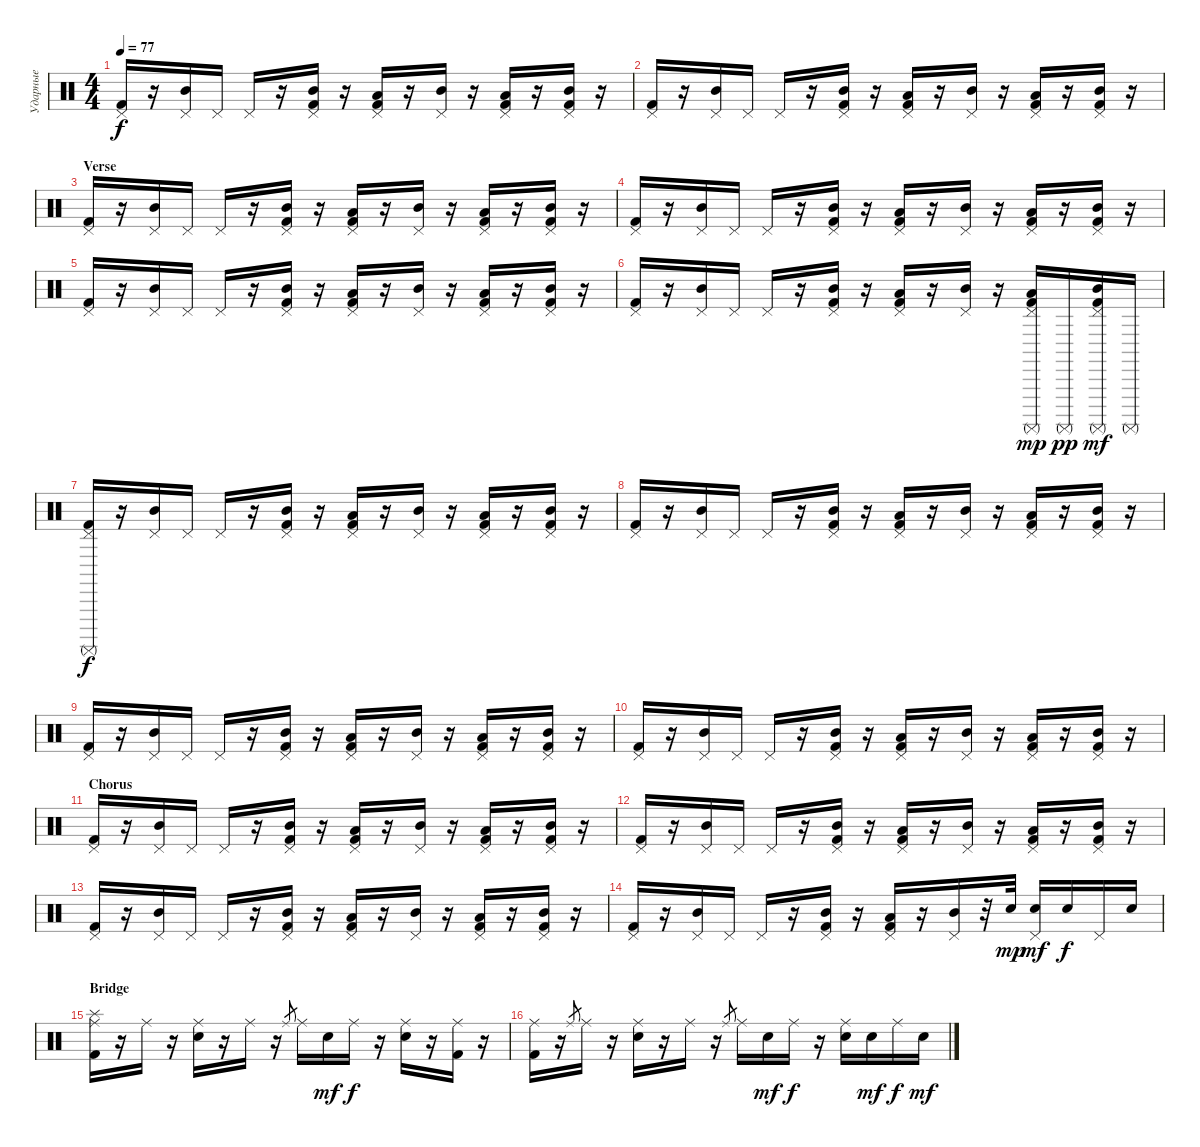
\track ("Ударные" "Ударные") {instrument percussion}
\staff {score}
\articulation defaults
\ts (4 4)
\tempo 77
\clef neutral
\ks c
("Pedal Hi-Hat (hit)" "Kick (hit) 2").16{dy f} r.16 ("Pedal Hi-Hat (hit)" "Mid Tom (hit)").16 "Pedal Hi-Hat (hit)".16 "Pedal Hi-Hat (hit)".16 r.16 ("Pedal Hi-Hat (hit)" "Mid Tom (hit)" "Kick (hit) 2").16 r.16 ("Pedal Hi-Hat (hit)" "Low Tom (hit)" "Kick (hit) 2").16 r.16 ("Pedal Hi-Hat (hit)" "Mid Tom (hit)").16 r.16 ("Pedal Hi-Hat (hit)" "Low Tom (hit)" "Kick (hit) 2").16 r.16 ("Pedal Hi-Hat (hit)" "Mid Tom (hit)" "Kick (hit) 2").16 r.16 |
("Pedal Hi-Hat (hit)" "Kick (hit) 2").16 r.16 ("Pedal Hi-Hat (hit)" "Mid Tom (hit)").16 "Pedal Hi-Hat (hit)".16 "Pedal Hi-Hat (hit)".16 r.16 ("Pedal Hi-Hat (hit)" "Mid Tom (hit)" "Kick (hit) 2").16 r.16 ("Pedal Hi-Hat (hit)" "Low Tom (hit)" "Kick (hit) 2").16 r.16 ("Pedal Hi-Hat (hit)" "Mid Tom (hit)").16 r.16 ("Pedal Hi-Hat (hit)" "Low Tom (hit)" "Kick (hit) 2").16 r.16 ("Pedal Hi-Hat (hit)" "Mid Tom (hit)" "Kick (hit) 2").16 r.16 |
\section ("" "Verse")
("Pedal Hi-Hat (hit)" "Kick (hit) 2").16 r.16 ("Pedal Hi-Hat (hit)" "Mid Tom (hit)").16 "Pedal Hi-Hat (hit)".16 "Pedal Hi-Hat (hit)".16 r.16 ("Pedal Hi-Hat (hit)" "Mid Tom (hit)" "Kick (hit) 2").16 r.16 ("Pedal Hi-Hat (hit)" "Low Tom (hit)" "Kick (hit) 2").16 r.16 ("Pedal Hi-Hat (hit)" "Mid Tom (hit)").16 r.16 ("Pedal Hi-Hat (hit)" "Low Tom (hit)" "Kick (hit) 2").16 r.16 ("Pedal Hi-Hat (hit)" "Mid Tom (hit)" "Kick (hit) 2").16 r.16 |
("Pedal Hi-Hat (hit)" "Kick (hit) 2").16 r.16 ("Pedal Hi-Hat (hit)" "Mid Tom (hit)").16 "Pedal Hi-Hat (hit)".16 "Pedal Hi-Hat (hit)".16 r.16 ("Pedal Hi-Hat (hit)" "Mid Tom (hit)" "Kick (hit) 2").16 r.16 ("Pedal Hi-Hat (hit)" "Low Tom (hit)" "Kick (hit) 2").16 r.16 ("Pedal Hi-Hat (hit)" "Mid Tom (hit)").16 r.16 ("Pedal Hi-Hat (hit)" "Low Tom (hit)" "Kick (hit) 2").16 r.16 ("Pedal Hi-Hat (hit)" "Mid Tom (hit)" "Kick (hit) 2").16 r.16 |
("Pedal Hi-Hat (hit)" "Kick (hit) 2").16 r.16 ("Pedal Hi-Hat (hit)" "Mid Tom (hit)").16 "Pedal Hi-Hat (hit)".16 "Pedal Hi-Hat (hit)".16 r.16 ("Pedal Hi-Hat (hit)" "Mid Tom (hit)" "Kick (hit) 2").16 r.16 ("Pedal Hi-Hat (hit)" "Low Tom (hit)" "Kick (hit) 2").16 r.16 ("Pedal Hi-Hat (hit)" "Mid Tom (hit)").16 r.16 ("Pedal Hi-Hat (hit)" "Low Tom (hit)" "Kick (hit) 2").16 r.16 ("Pedal Hi-Hat (hit)" "Mid Tom (hit)" "Kick (hit) 2").16 r.16 |
("Pedal Hi-Hat (hit)" "Kick (hit) 2").16 r.16 ("Pedal Hi-Hat (hit)" "Mid Tom (hit)").16 "Pedal Hi-Hat (hit)".16 "Pedal Hi-Hat (hit)".16 r.16 ("Pedal Hi-Hat (hit)" "Mid Tom (hit)" "Kick (hit) 2").16 r.16 ("Pedal Hi-Hat (hit)" "Low Tom (hit)" "Kick (hit) 2").16 r.16 ("Pedal Hi-Hat (hit)" "Mid Tom (hit)").16 r.16 ("Pedal Hi-Hat (hit)" "Surdo (mute)" "Low Tom (hit)" "Kick (hit) 2").16{dy mp} "Surdo (mute)".16{dy pp} ("Pedal Hi-Hat (hit)" "Surdo (mute)" "Mid Tom (hit)" "Kick (hit) 2").16{dy mf} "Surdo (mute)".16 |
("Pedal Hi-Hat (hit)" "Surdo (mute)" "Kick (hit) 2").16{dy f} r.16 ("Pedal Hi-Hat (hit)" "Mid Tom (hit)").16 "Pedal Hi-Hat (hit)".16 "Pedal Hi-Hat (hit)".16 r.16 ("Pedal Hi-Hat (hit)" "Mid Tom (hit)" "Kick (hit) 2").16 r.16 ("Pedal Hi-Hat (hit)" "Low Tom (hit)" "Kick (hit) 2").16 r.16 ("Pedal Hi-Hat (hit)" "Mid Tom (hit)").16 r.16 ("Pedal Hi-Hat (hit)" "Low Tom (hit)" "Kick (hit) 2").16 r.16 ("Pedal Hi-Hat (hit)" "Mid Tom (hit)" "Kick (hit) 2").16 r.16 |
("Pedal Hi-Hat (hit)" "Kick (hit) 2").16 r.16 ("Pedal Hi-Hat (hit)" "Mid Tom (hit)").16 "Pedal Hi-Hat (hit)".16 "Pedal Hi-Hat (hit)".16 r.16 ("Pedal Hi-Hat (hit)" "Mid Tom (hit)" "Kick (hit) 2").16 r.16 ("Pedal Hi-Hat (hit)" "Low Tom (hit)" "Kick (hit) 2").16 r.16 ("Pedal Hi-Hat (hit)" "Mid Tom (hit)").16 r.16 ("Pedal Hi-Hat (hit)" "Low Tom (hit)" "Kick (hit) 2").16 r.16 ("Pedal Hi-Hat (hit)" "Mid Tom (hit)" "Kick (hit) 2").16 r.16 |
("Pedal Hi-Hat (hit)" "Kick (hit) 2").16 r.16 ("Pedal Hi-Hat (hit)" "Mid Tom (hit)").16 "Pedal Hi-Hat (hit)".16 "Pedal Hi-Hat (hit)".16 r.16 ("Pedal Hi-Hat (hit)" "Mid Tom (hit)" "Kick (hit) 2").16 r.16 ("Pedal Hi-Hat (hit)" "Low Tom (hit)" "Kick (hit) 2").16 r.16 ("Pedal Hi-Hat (hit)" "Mid Tom (hit)").16 r.16 ("Pedal Hi-Hat (hit)" "Low Tom (hit)" "Kick (hit) 2").16 r.16 ("Pedal Hi-Hat (hit)" "Mid Tom (hit)" "Kick (hit) 2").16 r.16 |
("Pedal Hi-Hat (hit)" "Kick (hit) 2").16 r.16 ("Pedal Hi-Hat (hit)" "Mid Tom (hit)").16 "Pedal Hi-Hat (hit)".16 "Pedal Hi-Hat (hit)".16 r.16 ("Pedal Hi-Hat (hit)" "Mid Tom (hit)" "Kick (hit) 2").16 r.16 ("Pedal Hi-Hat (hit)" "Low Tom (hit)" "Kick (hit) 2").16 r.16 ("Pedal Hi-Hat (hit)" "Mid Tom (hit)").16 r.16 ("Pedal Hi-Hat (hit)" "Low Tom (hit)" "Kick (hit) 2").16 r.16 ("Pedal Hi-Hat (hit)" "Mid Tom (hit)" "Kick (hit) 2").16 r.16 |
\section ("" "Chorus")
("Pedal Hi-Hat (hit)" "Kick (hit) 2").16 r.16 ("Pedal Hi-Hat (hit)" "Mid Tom (hit)").16 "Pedal Hi-Hat (hit)".16 "Pedal Hi-Hat (hit)".16 r.16 ("Pedal Hi-Hat (hit)" "Mid Tom (hit)" "Kick (hit) 2").16 r.16 ("Pedal Hi-Hat (hit)" "Low Tom (hit)" "Kick (hit) 2").16 r.16 ("Pedal Hi-Hat (hit)" "Mid Tom (hit)").16 r.16 ("Pedal Hi-Hat (hit)" "Low Tom (hit)" "Kick (hit) 2").16 r.16 ("Pedal Hi-Hat (hit)" "Mid Tom (hit)" "Kick (hit) 2").16 r.16 |
("Pedal Hi-Hat (hit)" "Kick (hit) 2").16 r.16 ("Pedal Hi-Hat (hit)" "Mid Tom (hit)").16 "Pedal Hi-Hat (hit)".16 "Pedal Hi-Hat (hit)".16 r.16 ("Pedal Hi-Hat (hit)" "Mid Tom (hit)" "Kick (hit) 2").16 r.16 ("Pedal Hi-Hat (hit)" "Low Tom (hit)" "Kick (hit) 2").16 r.16 ("Pedal Hi-Hat (hit)" "Mid Tom (hit)").16 r.16 ("Pedal Hi-Hat (hit)" "Low Tom (hit)" "Kick (hit) 2").16 r.16 ("Pedal Hi-Hat (hit)" "Mid Tom (hit)" "Kick (hit) 2").16 r.16 |
("Pedal Hi-Hat (hit)" "Kick (hit) 2").16 r.16 ("Pedal Hi-Hat (hit)" "Mid Tom (hit)").16 "Pedal Hi-Hat (hit)".16 "Pedal Hi-Hat (hit)".16 r.16 ("Pedal Hi-Hat (hit)" "Mid Tom (hit)" "Kick (hit) 2").16 r.16 ("Pedal Hi-Hat (hit)" "Low Tom (hit)" "Kick (hit) 2").16 r.16 ("Pedal Hi-Hat (hit)" "Mid Tom (hit)").16 r.16 ("Pedal Hi-Hat (hit)" "Low Tom (hit)" "Kick (hit) 2").16 r.16 ("Pedal Hi-Hat (hit)" "Mid Tom (hit)" "Kick (hit) 2").16 r.16 |
("Pedal Hi-Hat (hit)" "Kick (hit) 2").16 r.16 ("Pedal Hi-Hat (hit)" "Mid Tom (hit)").16 "Pedal Hi-Hat (hit)".16 "Pedal Hi-Hat (hit)".16 r.16 ("Pedal Hi-Hat (hit)" "Mid Tom (hit)" "Kick (hit) 2").16 r.16 ("Pedal Hi-Hat (hit)" "Low Tom (hit)" "Kick (hit) 2").16 r.16 ("Pedal Hi-Hat (hit)" "Mid Tom (hit)").16 r.32 "Electric Snare (hit)".32{dy mp volume 13} ("Pedal Hi-Hat (hit)" "Electric Snare (hit)").16{dy mf} "Electric Snare (hit)".16{dy f} "Pedal Hi-Hat (hit)".16 "Electric Snare (hit)".16 |
\section ("" "Bridge")
("Splash (hit)" "Ride (middle)" "Kick (hit) 2").16 r.16 "Ride (middle)".16 r.16 ("Ride (middle)" "Electric Snare (hit)").16 r.16 "Ride (middle)".16 r.16 "Ride (middle)".8{gr} "Ride (middle)".16 "Electric Snare (hit)".16{dy mf} "Ride (middle)".16{dy f} r.16 ("Ride (middle)" "Electric Snare (hit)").16 r.16 ("Ride (middle)" "Kick (hit) 2").16 r.16 |
("Ride (middle)" "Kick (hit) 2").16 r.16 "Ride (middle)".8{gr} "Ride (middle)".16 r.16 ("Ride (middle)" "Electric Snare (hit)").16 r.16 "Ride (middle)".16 r.16 "Ride (middle)".8{gr} "Ride (middle)".16 "Electric Snare (hit)".16{dy mf} "Ride (middle)".16{dy f} r.16 ("Ride (middle)" "Electric Snare (hit)").16 "Electric Snare (hit)".16{dy mf} "Ride (middle)".16{dy f} "Electric Snare (hit)".16{dy mf}
